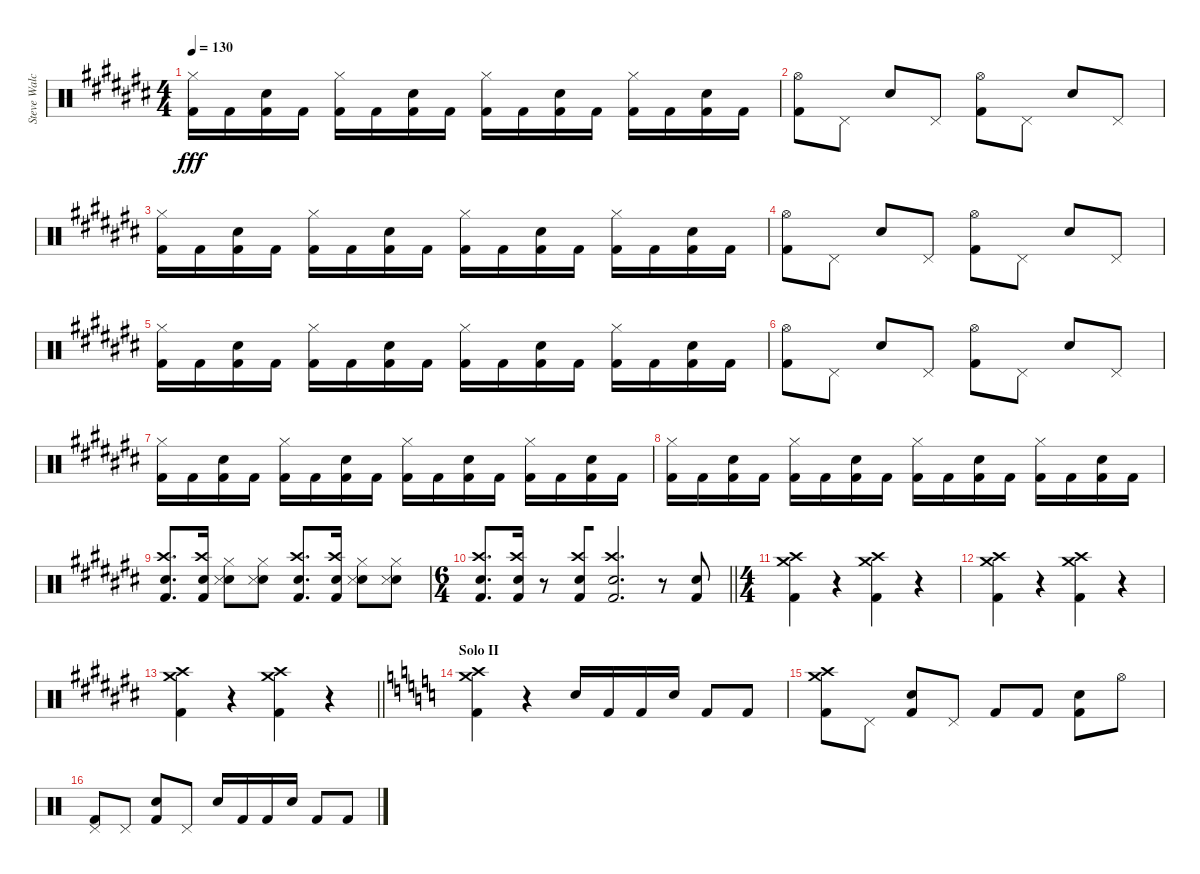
\track ("Steve Walchoz" "Steve Walc") {instrument percussion}
\staff {score}
\articulation defaults
\ts (4 4)
\tempo 130
\clef neutral
\ks c#
("Hi-Hat (closed)" "Kick (hit) 2").16{dy fff} "Kick (hit) 2".16 ("Snare (hit) 2" "Kick (hit) 2").16 "Kick (hit) 2".16 ("Hi-Hat (closed)" "Kick (hit) 2").16 "Kick (hit) 2".16 ("Snare (hit) 2" "Kick (hit) 2").16 "Kick (hit) 2".16 ("Hi-Hat (closed)" "Kick (hit) 2").16 "Kick (hit) 2".16 ("Snare (hit) 2" "Kick (hit) 2").16 "Kick (hit) 2".16 ("Hi-Hat (closed)" "Kick (hit) 2").16 "Kick (hit) 2".16 ("Snare (hit) 2" "Kick (hit) 2").16 "Kick (hit) 2".16 |
("Hi-Hat (open)" "Kick (hit) 2").8 "Pedal Hi-Hat (hit)".8 "Snare (hit) 2".8 "Pedal Hi-Hat (hit)".8 ("Hi-Hat (open)" "Kick (hit) 2").8 "Pedal Hi-Hat (hit)".8 "Snare (hit) 2".8 "Pedal Hi-Hat (hit)".8 |
("Hi-Hat (closed)" "Kick (hit) 2").16 "Kick (hit) 2".16 ("Snare (hit) 2" "Kick (hit) 2").16 "Kick (hit) 2".16 ("Hi-Hat (closed)" "Kick (hit) 2").16 "Kick (hit) 2".16 ("Snare (hit) 2" "Kick (hit) 2").16 "Kick (hit) 2".16 ("Hi-Hat (closed)" "Kick (hit) 2").16 "Kick (hit) 2".16 ("Snare (hit) 2" "Kick (hit) 2").16 "Kick (hit) 2".16 ("Hi-Hat (closed)" "Kick (hit) 2").16 "Kick (hit) 2".16 ("Snare (hit) 2" "Kick (hit) 2").16 "Kick (hit) 2".16 |
("Hi-Hat (open)" "Kick (hit) 2").8 "Pedal Hi-Hat (hit)".8 "Snare (hit) 2".8 "Pedal Hi-Hat (hit)".8 ("Hi-Hat (open)" "Kick (hit) 2").8 "Pedal Hi-Hat (hit)".8 "Snare (hit) 2".8 "Pedal Hi-Hat (hit)".8 |
("Hi-Hat (closed)" "Kick (hit) 2").16 "Kick (hit) 2".16 ("Snare (hit) 2" "Kick (hit) 2").16 "Kick (hit) 2".16 ("Hi-Hat (closed)" "Kick (hit) 2").16 "Kick (hit) 2".16 ("Snare (hit) 2" "Kick (hit) 2").16 "Kick (hit) 2".16 ("Hi-Hat (closed)" "Kick (hit) 2").16 "Kick (hit) 2".16 ("Snare (hit) 2" "Kick (hit) 2").16 "Kick (hit) 2".16 ("Hi-Hat (closed)" "Kick (hit) 2").16 "Kick (hit) 2".16 ("Snare (hit) 2" "Kick (hit) 2").16 "Kick (hit) 2".16 |
("Hi-Hat (open)" "Kick (hit) 2").8 "Pedal Hi-Hat (hit)".8 "Snare (hit) 2".8 "Pedal Hi-Hat (hit)".8 ("Hi-Hat (open)" "Kick (hit) 2").8 "Pedal Hi-Hat (hit)".8 "Snare (hit) 2".8 "Pedal Hi-Hat (hit)".8 |
("Hi-Hat (closed)" "Kick (hit) 2").16 "Kick (hit) 2".16 ("Snare (hit) 2" "Kick (hit) 2").16 "Kick (hit) 2".16 ("Hi-Hat (closed)" "Kick (hit) 2").16 "Kick (hit) 2".16 ("Snare (hit) 2" "Kick (hit) 2").16 "Kick (hit) 2".16 ("Hi-Hat (closed)" "Kick (hit) 2").16 "Kick (hit) 2".16 ("Snare (hit) 2" "Kick (hit) 2").16 "Kick (hit) 2".16 ("Hi-Hat (closed)" "Kick (hit) 2").16 "Kick (hit) 2".16 ("Snare (hit) 2" "Kick (hit) 2").16 "Kick (hit) 2".16 |
("Hi-Hat (closed)" "Kick (hit) 2").16 "Kick (hit) 2".16 ("Snare (hit) 2" "Kick (hit) 2").16 "Kick (hit) 2".16 ("Hi-Hat (closed)" "Kick (hit) 2").16 "Kick (hit) 2".16 ("Snare (hit) 2" "Kick (hit) 2").16 "Kick (hit) 2".16 ("Hi-Hat (closed)" "Kick (hit) 2").16 "Kick (hit) 2".16 ("Snare (hit) 2" "Kick (hit) 2").16 "Kick (hit) 2".16 ("Hi-Hat (closed)" "Kick (hit) 2").16 "Kick (hit) 2".16 ("Snare (hit) 2" "Kick (hit) 2").16 "Kick (hit) 2".16 |
("Crash high (hit)" "Snare (hit) 2" "Kick (hit) 2").8{d beam Up beam merge} ("Crash high (hit)" "Snare (hit) 2" "Kick (hit) 2").16{beam Up} ("Snare (hit) 2" "Snare (side stick) 3" "Hi-Hat (closed)").8 ("Snare (hit) 2" "Snare (side stick) 3" "Hi-Hat (closed)").8 ("Crash high (hit)" "Snare (hit) 2" "Kick (hit) 2").8{d beam Up beam merge} ("Crash high (hit)" "Snare (hit) 2" "Kick (hit) 2").16{beam Up} ("Snare (hit) 2" "Snare (side stick) 3" "Hi-Hat (closed)").8 ("Snare (hit) 2" "Snare (side stick) 3" "Hi-Hat (closed)").8 |
\ts (6 4)
\barLineRight lightlight
("Crash high (hit)" "Snare (hit) 2" "Kick (hit) 2").8{d beam Up beam merge} ("Crash high (hit)" "Snare (hit) 2" "Kick (hit) 2").16{beam Up} r.8 ("Crash high (hit)" "Snare (hit) 2" "Kick (hit) 2").8{beam Up beam merge} ("Crash high (hit)" "Snare (hit) 2" "Kick (hit) 2").2{d beam Up} r.8 ("Snare (hit) 2" "Kick (hit) 2").8 |
\ts (4 4)
("Crash medium (hit)" "Crash high (hit)" "Kick (hit) 2").4 r.4 ("Crash medium (hit)" "Crash high (hit)" "Kick (hit) 2").4 r.4 |
("Crash medium (hit)" "Crash high (hit)" "Kick (hit) 2").4 r.4 ("Crash medium (hit)" "Crash high (hit)" "Kick (hit) 2").4 r.4 |
\barLineRight lightlight
("Crash medium (hit)" "Crash high (hit)" "Kick (hit) 2").4 r.4 ("Crash medium (hit)" "Crash high (hit)" "Kick (hit) 2").4 r.4 |
\section ("" "Solo II")
\ks c
("Crash medium (hit)" "Crash high (hit)" "Kick (hit) 2").4 r.4 "Snare (hit) 2".16 "Kick (hit) 2".16 "Kick (hit) 2".16 "Snare (hit) 2".16 "Kick (hit) 2".8 "Kick (hit) 2".8 |
("Crash medium (hit)" "Crash high (hit)" "Kick (hit) 2").8 "Pedal Hi-Hat (hit)".8 ("Snare (hit) 2" "Kick (hit) 2").8 "Pedal Hi-Hat (hit)".8 "Kick (hit) 2".8 "Kick (hit) 2".8 ("Snare (hit) 2" "Kick (hit) 2").8 "Hi-Hat (open)".8 |
("Pedal Hi-Hat (hit)" "Kick (hit) 2").8 "Pedal Hi-Hat (hit)".8 ("Snare (hit) 2" "Kick (hit) 2").8 "Pedal Hi-Hat (hit)".8 "Snare (hit) 2".16 "Kick (hit) 2".16 "Kick (hit) 2".16 "Snare (hit) 2".16 "Kick (hit) 2".8 "Kick (hit) 2".8
